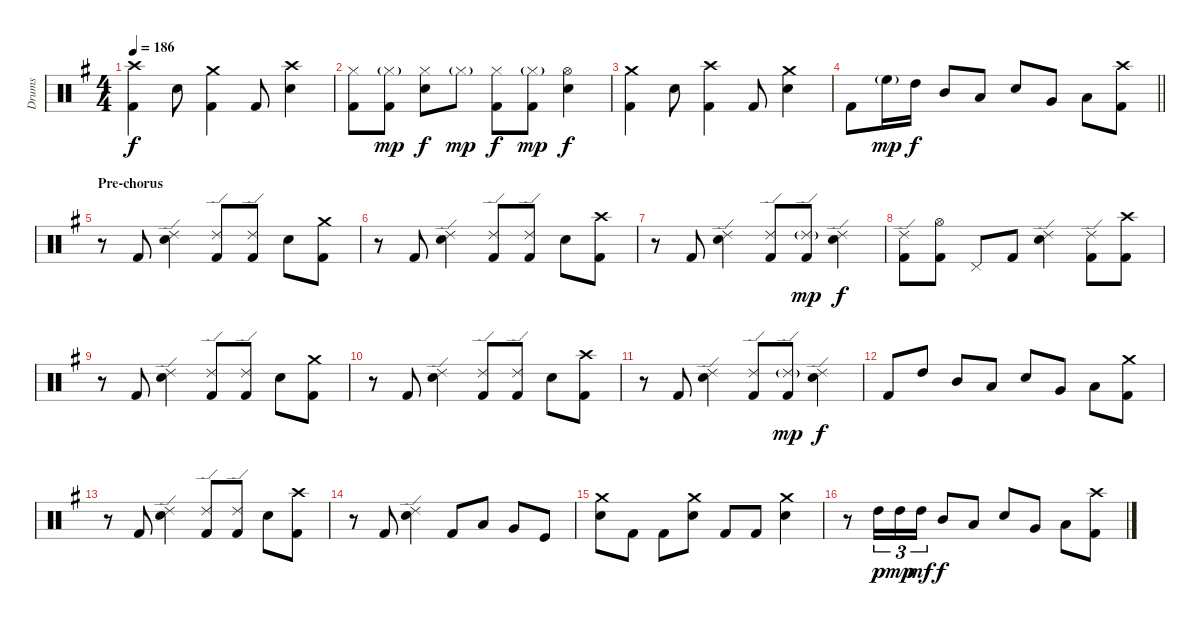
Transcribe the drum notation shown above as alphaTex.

\track ("Drums" "Drums") {instrument percussion}
\staff {score}
\articulation defaults
\ts (4 4)
\tempo 186
\clef neutral
\ks g
("Crash high (hit)" "Kick (hit) 2").4{dy f} "Snare (hit) 2".8 ("Crash medium (hit)" "Kick (hit) 2").4 "Kick (hit) 2".8 ("Crash high (hit)" "Snare (hit) 2").4 |
("Hi-Hat (closed)" "Kick (hit) 2").8 ("Hi-Hat (closed)"{g} "Kick (hit) 2").8{dy mp} ("Hi-Hat (closed)" "Snare (hit) 2").8{dy f} "Hi-Hat (closed)"{g}.8{dy mp} ("Hi-Hat (closed)" "Kick (hit) 2").8{dy f} ("Hi-Hat (closed)"{g} "Kick (hit) 2").8{dy mp} ("Hi-Hat (open)" "Snare (hit) 2").4{dy f} |
("Crash medium (hit)" "Kick (hit) 2").4 "Snare (hit) 2".8 ("Crash high (hit)" "Kick (hit) 2").4 "Kick (hit) 2".8 ("Crash medium (hit)" "Snare (hit) 2").4 |
\barLineRight lightlight "Kick (hit) 2".8 "High Floor Tom (hit)"{g}.16{dy mp} "High Tom (hit)".16{dy f} "Mid Tom (hit)".8 "Low Tom (hit)".8 "Snare (hit) 2".8 "Very Low Tom (hit)".8 "Low Floor Tom (hit)".8
("Crash high (hit)" "Kick (hit) 2").8 |
\section ("" "Pre-chorus")
r.8 "Kick (hit) 2".8 ("Ride (edge) 2" "Snare (hit) 2").4 ("Ride (edge) 2" "Kick (hit) 2").8 ("Ride (edge) 2" "Kick (hit) 2").8 "Snare (hit) 2".8 ("Crash medium (hit)" "Kick (hit) 2").8 |
r.8 "Kick (hit) 2".8 ("Ride (edge) 2" "Snare (hit) 2").4 ("Ride (edge) 2" "Kick (hit) 2").8 ("Ride (edge) 2" "Kick (hit) 2").8 "Snare (hit) 2".8 ("Crash high (hit)" "Kick (hit) 2").8 |
r.8 "Kick (hit) 2".8 ("Ride (edge) 2" "Snare (hit) 2").4 ("Ride (edge) 2" "Kick (hit) 2").8 ("Ride (edge) 2"{g} "Kick (hit) 2").8{dy mp} ("Ride (edge) 2" "Snare (hit) 2").4{dy f} |
("Ride (edge) 2" "Kick (hit) 2").8 ("Hi-Hat (open)" "Kick (hit) 2").8 "Pedal Hi-Hat (hit)".8 "Kick (hit) 2".8 ("Ride (edge) 2" "Snare (hit) 2").4 ("Ride (edge) 2" "Kick (hit) 2").8 ("Crash high (hit)" "Kick (hit) 2").8 |
r.8 "Kick (hit) 2".8 ("Ride (edge) 2" "Snare (hit) 2").4 ("Ride (edge) 2" "Kick (hit) 2").8 ("Ride (edge) 2" "Kick (hit) 2").8 "Snare (hit) 2".8 ("Crash medium (hit)" "Kick (hit) 2").8 |
r.8 "Kick (hit) 2".8 ("Ride (edge) 2" "Snare (hit) 2").4 ("Ride (edge) 2" "Kick (hit) 2").8 ("Ride (edge) 2" "Kick (hit) 2").8 "Snare (hit) 2".8 ("Crash high (hit)" "Kick (hit) 2").8 |
r.8 "Kick (hit) 2".8 ("Ride (edge) 2" "Snare (hit) 2").4 ("Ride (edge) 2" "Kick (hit) 2").8 ("Ride (edge) 2"{g} "Kick (hit) 2").8{dy mp} ("Ride (edge) 2" "Snare (hit) 2").4{dy f} |
"Kick (hit) 2".8 "High Tom (hit)".8 "Mid Tom (hit)".8 "Low Tom (hit)".8 "Snare (hit) 2".8 "Very Low Tom (hit)".8 "Low Floor Tom (hit)".8 ("Crash medium (hit)" "Kick (hit) 2").8 |
r.8 "Kick (hit) 2".8 ("Ride (edge) 2" "Snare (hit) 2").4 ("Ride (edge) 2" "Kick (hit) 2").8 ("Ride (edge) 2" "Kick (hit) 2").8 "Snare (hit) 2".8 ("Crash high (hit)" "Kick (hit) 2").8 |
r.8 "Kick (hit) 2".8 ("Ride (edge) 2" "Snare (hit) 2").4 "Kick (hit) 2".8 "Low Tom (hit)".8 "Very Low Tom (hit)".8 "Kick (hit)".8 |
("Crash medium (hit)" "Snare (hit) 2").8 "Kick (hit) 2".8 "Kick (hit) 2".8 ("Crash medium (hit)" "Snare (hit) 2").8 "Kick (hit) 2".8 "Kick (hit) 2".8 ("Crash medium (hit)" "Snare (hit) 2").4 |
r.8 "High Tom (hit)".16{tu (3 2) dy p} "High Tom (hit)".16{tu (3 2) dy mp} "High Tom (hit)".16{tu (3 2) dy mf} "Mid Tom (hit)".8{dy f} "Low Tom (hit)".8 "Snare (hit) 2".8 "Very Low Tom (hit)".8 "Low Floor Tom (hit)".8 ("Crash high (hit)" "Kick (hit) 2").8
